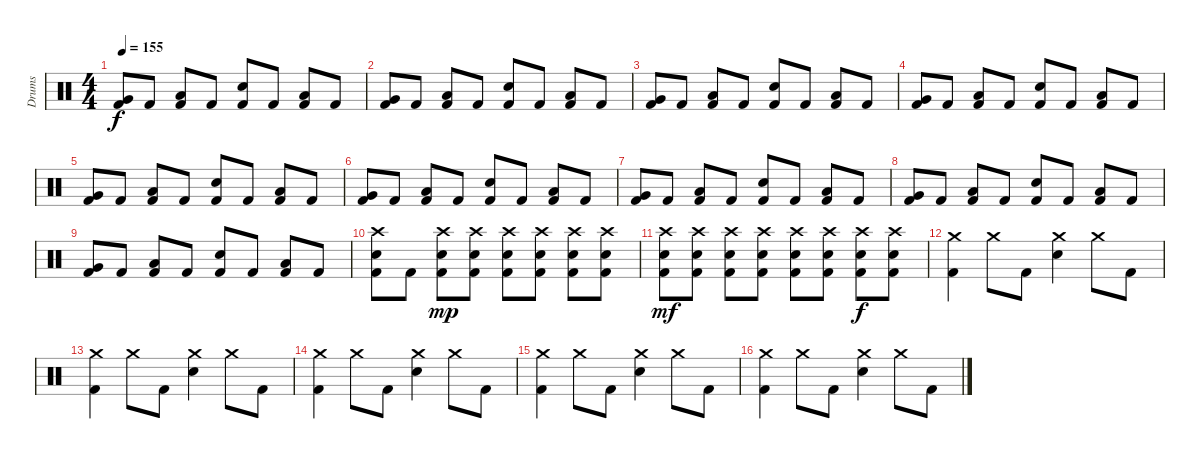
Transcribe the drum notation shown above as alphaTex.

\track ("Drums" "Drums") {instrument percussion bank 255}
\staff {score}
\articulation defaults
\ts (4 4)
\tempo 155
\clef neutral
\ks c
("Very Low Tom (hit)" "Kick (hit) 2").8{dy f} "Kick (hit) 2".8 ("Low Floor Tom (hit)" "Kick (hit) 2").8 "Kick (hit) 2".8 ("Electric Snare (hit)" "Kick (hit) 2").8 "Kick (hit) 2".8 ("Low Tom (hit)" "Kick (hit) 2").8 "Kick (hit) 2".8 |
("Very Low Tom (hit)" "Kick (hit) 2").8 "Kick (hit) 2".8 ("Low Floor Tom (hit)" "Kick (hit) 2").8 "Kick (hit) 2".8 ("Electric Snare (hit)" "Kick (hit) 2").8 "Kick (hit) 2".8 ("Low Tom (hit)" "Kick (hit) 2").8 "Kick (hit) 2".8 |
("Very Low Tom (hit)" "Kick (hit) 2").8 "Kick (hit) 2".8 ("Low Floor Tom (hit)" "Kick (hit) 2").8 "Kick (hit) 2".8 ("Electric Snare (hit)" "Kick (hit) 2").8 "Kick (hit) 2".8 ("Low Tom (hit)" "Kick (hit) 2").8 "Kick (hit) 2".8 |
("Very Low Tom (hit)" "Kick (hit) 2").8 "Kick (hit) 2".8 ("Low Floor Tom (hit)" "Kick (hit) 2").8 "Kick (hit) 2".8 ("Electric Snare (hit)" "Kick (hit) 2").8 "Kick (hit) 2".8 ("Low Tom (hit)" "Kick (hit) 2").8 "Kick (hit) 2".8 |
("Very Low Tom (hit)" "Kick (hit) 2").8 "Kick (hit) 2".8 ("Low Floor Tom (hit)" "Kick (hit) 2").8 "Kick (hit) 2".8 ("Electric Snare (hit)" "Kick (hit) 2").8 "Kick (hit) 2".8 ("Low Tom (hit)" "Kick (hit) 2").8 "Kick (hit) 2".8 |
("Very Low Tom (hit)" "Kick (hit) 2").8 "Kick (hit) 2".8 ("Low Floor Tom (hit)" "Kick (hit) 2").8 "Kick (hit) 2".8 ("Electric Snare (hit)" "Kick (hit) 2").8 "Kick (hit) 2".8 ("Low Tom (hit)" "Kick (hit) 2").8 "Kick (hit) 2".8 |
("Very Low Tom (hit)" "Kick (hit) 2").8 "Kick (hit) 2".8 ("Low Floor Tom (hit)" "Kick (hit) 2").8 "Kick (hit) 2".8 ("Electric Snare (hit)" "Kick (hit) 2").8 "Kick (hit) 2".8 ("Low Tom (hit)" "Kick (hit) 2").8 "Kick (hit) 2".8 |
("Very Low Tom (hit)" "Kick (hit) 2").8 "Kick (hit) 2".8 ("Low Floor Tom (hit)" "Kick (hit) 2").8 "Kick (hit) 2".8 ("Electric Snare (hit)" "Kick (hit) 2").8 "Kick (hit) 2".8 ("Low Tom (hit)" "Kick (hit) 2").8 "Kick (hit) 2".8 |
("Very Low Tom (hit)" "Kick (hit) 2").8 "Kick (hit) 2".8 ("Low Floor Tom (hit)" "Kick (hit) 2").8 "Kick (hit) 2".8 ("Electric Snare (hit)" "Kick (hit) 2").8 "Kick (hit) 2".8 ("Low Tom (hit)" "Kick (hit) 2").8 "Kick (hit) 2".8 |
("Crash high (hit)" "Electric Snare (hit)" "Kick (hit) 2").8 "Kick (hit) 2".8 ("Crash high (hit)" "Electric Snare (hit)" "Kick (hit) 2").8{dy mp} ("Crash high (hit)" "Electric Snare (hit)" "Kick (hit) 2").8 ("Crash high (hit)" "Electric Snare (hit)" "Kick (hit) 2").8 ("Crash high (hit)" "Electric Snare (hit)" "Kick (hit) 2").8 ("Crash high (hit)" "Electric Snare (hit)" "Kick (hit) 2").8 ("Crash high (hit)" "Electric Snare (hit)" "Kick (hit) 2").8 |
("Crash high (hit)" "Electric Snare (hit)" "Kick (hit) 2").8{dy mf} ("Crash high (hit)" "Electric Snare (hit)" "Kick (hit) 2").8 ("Crash high (hit)" "Electric Snare (hit)" "Kick (hit) 2").8 ("Crash high (hit)" "Electric Snare (hit)" "Kick (hit) 2").8 ("Crash high (hit)" "Electric Snare (hit)" "Kick (hit) 2").8 ("Crash high (hit)" "Electric Snare (hit)" "Kick (hit) 2").8 ("Crash high (hit)" "Electric Snare (hit)" "Kick (hit) 2").8{dy f} ("Crash high (hit)" "Electric Snare (hit)" "Kick (hit) 2").8 |
("Crash medium (hit)" "Kick (hit) 2").4 "Crash medium (hit)".8 "Kick (hit) 2".8 ("Crash medium (hit)" "Electric Snare (hit)").4 "Crash medium (hit)".8 "Kick (hit) 2".8 |
("Crash medium (hit)" "Kick (hit) 2").4 "Crash medium (hit)".8 "Kick (hit) 2".8 ("Crash medium (hit)" "Electric Snare (hit)").4 "Crash medium (hit)".8 "Kick (hit) 2".8 |
("Crash medium (hit)" "Kick (hit) 2").4 "Crash medium (hit)".8 "Kick (hit) 2".8 ("Crash medium (hit)" "Electric Snare (hit)").4 "Crash medium (hit)".8 "Kick (hit) 2".8 |
("Crash medium (hit)" "Kick (hit) 2").4 "Crash medium (hit)".8 "Kick (hit) 2".8 ("Crash medium (hit)" "Electric Snare (hit)").4 "Crash medium (hit)".8 "Kick (hit) 2".8 |
("Crash medium (hit)" "Kick (hit) 2").4 "Crash medium (hit)".8 "Kick (hit) 2".8 ("Crash medium (hit)" "Electric Snare (hit)").4 "Crash medium (hit)".8 "Kick (hit) 2".8
